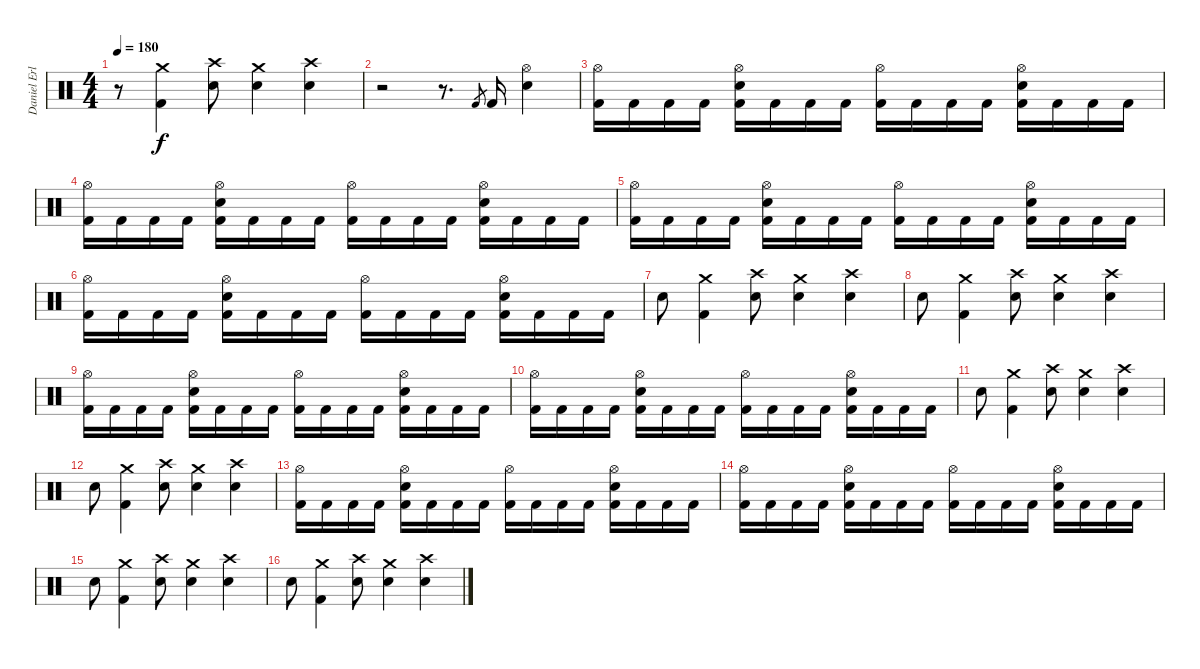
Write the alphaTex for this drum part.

\track ("Daniel Erlandson" "Daniel Erl") {instrument percussion}
\staff {score}
\articulation defaults
\ts (4 4)
\tempo 180
\clef neutral
\ks c
r.8{dy f} ("Crash medium (hit)" "Kick (hit) 2").4 ("Crash high (hit)" "Electric Snare (hit)").8 ("Crash medium (hit)" "Electric Snare (hit)").4 ("Crash high (hit)" "Electric Snare (hit)").4 |
r.2 r.8{d} "Kick (hit) 2".8{gr} "Kick (hit) 2".16 ("Hi-Hat (open)" "Electric Snare (hit)").4 |
("Hi-Hat (open)" "Kick (hit) 2").16 "Kick (hit) 2".16 "Kick (hit) 2".16 "Kick (hit) 2".16 ("Hi-Hat (open)" "Electric Snare (hit)" "Kick (hit) 2").16 "Kick (hit) 2".16 "Kick (hit) 2".16 "Kick (hit) 2".16 ("Hi-Hat (open)" "Kick (hit) 2").16 "Kick (hit) 2".16 "Kick (hit) 2".16 "Kick (hit) 2".16 ("Hi-Hat (open)" "Electric Snare (hit)" "Kick (hit) 2").16 "Kick (hit) 2".16 "Kick (hit) 2".16 "Kick (hit) 2".16 |
("Hi-Hat (open)" "Kick (hit) 2").16 "Kick (hit) 2".16 "Kick (hit) 2".16 "Kick (hit) 2".16 ("Hi-Hat (open)" "Electric Snare (hit)" "Kick (hit) 2").16 "Kick (hit) 2".16 "Kick (hit) 2".16 "Kick (hit) 2".16 ("Hi-Hat (open)" "Kick (hit) 2").16 "Kick (hit) 2".16 "Kick (hit) 2".16 "Kick (hit) 2".16 ("Hi-Hat (open)" "Electric Snare (hit)" "Kick (hit) 2").16 "Kick (hit) 2".16 "Kick (hit) 2".16 "Kick (hit) 2".16 |
("Hi-Hat (open)" "Kick (hit) 2").16 "Kick (hit) 2".16 "Kick (hit) 2".16 "Kick (hit) 2".16 ("Hi-Hat (open)" "Electric Snare (hit)" "Kick (hit) 2").16 "Kick (hit) 2".16 "Kick (hit) 2".16 "Kick (hit) 2".16 ("Hi-Hat (open)" "Kick (hit) 2").16 "Kick (hit) 2".16 "Kick (hit) 2".16 "Kick (hit) 2".16 ("Hi-Hat (open)" "Electric Snare (hit)" "Kick (hit) 2").16 "Kick (hit) 2".16 "Kick (hit) 2".16 "Kick (hit) 2".16 |
("Hi-Hat (open)" "Kick (hit) 2").16 "Kick (hit) 2".16 "Kick (hit) 2".16 "Kick (hit) 2".16 ("Hi-Hat (open)" "Electric Snare (hit)" "Kick (hit) 2").16 "Kick (hit) 2".16 "Kick (hit) 2".16 "Kick (hit) 2".16 ("Hi-Hat (open)" "Kick (hit) 2").16 "Kick (hit) 2".16 "Kick (hit) 2".16 "Kick (hit) 2".16 ("Hi-Hat (open)" "Electric Snare (hit)" "Kick (hit) 2").16 "Kick (hit) 2".16 "Kick (hit) 2".16 "Kick (hit) 2".16 |
"Electric Snare (hit)".8 ("Crash medium (hit)" "Kick (hit) 2").4 ("Crash high (hit)" "Electric Snare (hit)").8 ("Crash medium (hit)" "Electric Snare (hit)").4 ("Crash high (hit)" "Electric Snare (hit)").4 |
"Electric Snare (hit)".8 ("Crash medium (hit)" "Kick (hit) 2").4 ("Crash high (hit)" "Electric Snare (hit)").8 ("Crash medium (hit)" "Electric Snare (hit)").4 ("Crash high (hit)" "Electric Snare (hit)").4 |
("Hi-Hat (open)" "Kick (hit) 2").16 "Kick (hit) 2".16 "Kick (hit) 2".16 "Kick (hit) 2".16 ("Hi-Hat (open)" "Electric Snare (hit)" "Kick (hit) 2").16 "Kick (hit) 2".16 "Kick (hit) 2".16 "Kick (hit) 2".16 ("Hi-Hat (open)" "Kick (hit) 2").16 "Kick (hit) 2".16 "Kick (hit) 2".16 "Kick (hit) 2".16 ("Hi-Hat (open)" "Electric Snare (hit)" "Kick (hit) 2").16 "Kick (hit) 2".16 "Kick (hit) 2".16 "Kick (hit) 2".16 |
("Hi-Hat (open)" "Kick (hit) 2").16 "Kick (hit) 2".16 "Kick (hit) 2".16 "Kick (hit) 2".16 ("Hi-Hat (open)" "Electric Snare (hit)" "Kick (hit) 2").16 "Kick (hit) 2".16 "Kick (hit) 2".16 "Kick (hit) 2".16 ("Hi-Hat (open)" "Kick (hit) 2").16 "Kick (hit) 2".16 "Kick (hit) 2".16 "Kick (hit) 2".16 ("Hi-Hat (open)" "Electric Snare (hit)" "Kick (hit) 2").16 "Kick (hit) 2".16 "Kick (hit) 2".16 "Kick (hit) 2".16 |
"Electric Snare (hit)".8 ("Crash medium (hit)" "Kick (hit) 2").4 ("Crash high (hit)" "Electric Snare (hit)").8 ("Crash medium (hit)" "Electric Snare (hit)").4 ("Crash high (hit)" "Electric Snare (hit)").4 |
"Electric Snare (hit)".8 ("Crash medium (hit)" "Kick (hit) 2").4 ("Crash high (hit)" "Electric Snare (hit)").8 ("Crash medium (hit)" "Electric Snare (hit)").4 ("Crash high (hit)" "Electric Snare (hit)").4 |
("Hi-Hat (open)" "Kick (hit) 2").16 "Kick (hit) 2".16 "Kick (hit) 2".16 "Kick (hit) 2".16 ("Hi-Hat (open)" "Electric Snare (hit)" "Kick (hit) 2").16 "Kick (hit) 2".16 "Kick (hit) 2".16 "Kick (hit) 2".16 ("Hi-Hat (open)" "Kick (hit) 2").16 "Kick (hit) 2".16 "Kick (hit) 2".16 "Kick (hit) 2".16 ("Hi-Hat (open)" "Electric Snare (hit)" "Kick (hit) 2").16 "Kick (hit) 2".16 "Kick (hit) 2".16 "Kick (hit) 2".16 |
("Hi-Hat (open)" "Kick (hit) 2").16 "Kick (hit) 2".16 "Kick (hit) 2".16 "Kick (hit) 2".16 ("Hi-Hat (open)" "Electric Snare (hit)" "Kick (hit) 2").16 "Kick (hit) 2".16 "Kick (hit) 2".16 "Kick (hit) 2".16 ("Hi-Hat (open)" "Kick (hit) 2").16 "Kick (hit) 2".16 "Kick (hit) 2".16 "Kick (hit) 2".16 ("Hi-Hat (open)" "Electric Snare (hit)" "Kick (hit) 2").16 "Kick (hit) 2".16 "Kick (hit) 2".16 "Kick (hit) 2".16 |
"Electric Snare (hit)".8 ("Crash medium (hit)" "Kick (hit) 2").4 ("Crash high (hit)" "Electric Snare (hit)").8 ("Crash medium (hit)" "Electric Snare (hit)").4 ("Crash high (hit)" "Electric Snare (hit)").4 |
"Electric Snare (hit)".8 ("Crash medium (hit)" "Kick (hit) 2").4 ("Crash high (hit)" "Electric Snare (hit)").8 ("Crash medium (hit)" "Electric Snare (hit)").4 ("Crash high (hit)" "Electric Snare (hit)").4
